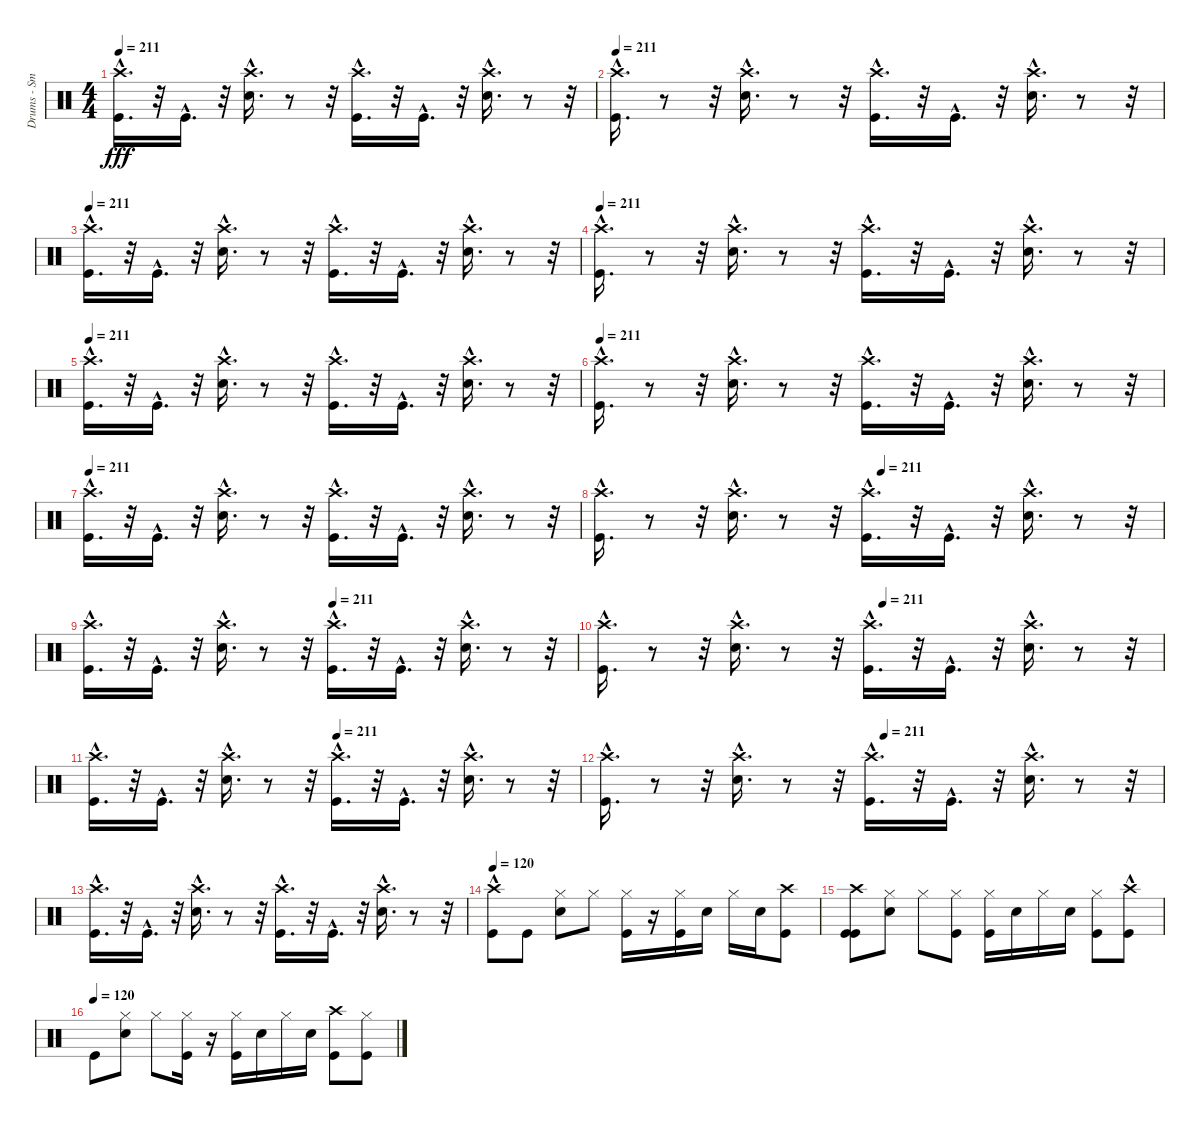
\track ("Drums - Smelly" "Drums - Sm") {instrument percussion}
\staff {score}
\articulation defaults
\ts (4 4)
\tempo 211
\clef neutral
\ks c
("Kick (hit)"{hac} "Crash high (hit)"{hac}).16{d dy fff} r.32 "Kick (hit)"{hac}.16{d} r.32 ("Electric Snare (hit)"{hac} "Crash high (hit)"{hac}).16{d} r.8 r.32 ("Crash high (hit)"{hac} "Kick (hit)"{hac}).16{d} r.32 "Kick (hit)"{hac}.16{d} r.32 ("Crash high (hit)"{hac} "Electric Snare (hit)"{hac}).16{d} r.8 r.32 |
\tempo 211
("Crash high (hit)"{hac} "Kick (hit)"{hac}).16{d} r.8 r.32 ("Electric Snare (hit)"{hac} "Crash high (hit)"{hac}).16{d} r.8 r.32 ("Kick (hit)"{hac} "Crash high (hit)"{hac}).16{d} r.32 "Kick (hit)"{hac}.16{d} r.32 ("Crash high (hit)"{hac} "Electric Snare (hit)"{hac}).16{d} r.8 r.32 |
\tempo 211
("Kick (hit)"{hac} "Crash high (hit)"{hac}).16{d} r.32 "Kick (hit)"{hac}.16{d} r.32 ("Electric Snare (hit)"{hac} "Crash high (hit)"{hac}).16{d} r.8 r.32 ("Crash high (hit)"{hac} "Kick (hit)"{hac}).16{d} r.32 "Kick (hit)"{hac}.16{d} r.32 ("Crash high (hit)"{hac} "Electric Snare (hit)"{hac}).16{d} r.8 r.32 |
\tempo 211
("Crash high (hit)"{hac} "Kick (hit)"{hac}).16{d} r.8 r.32 ("Electric Snare (hit)"{hac} "Crash high (hit)"{hac}).16{d} r.8 r.32 ("Crash high (hit)"{hac} "Kick (hit)"{hac}).16{d} r.32 "Kick (hit)"{hac}.16{d} r.32 ("Crash high (hit)"{hac} "Electric Snare (hit)"{hac}).16{d} r.8 r.32 |
\tempo 211
("Crash high (hit)"{hac} "Kick (hit)"{hac}).16{d} r.32 "Kick (hit)"{hac}.16{d} r.32 ("Electric Snare (hit)"{hac} "Crash high (hit)"{hac}).16{d} r.8 r.32 ("Crash high (hit)"{hac} "Kick (hit)"{hac}).16{d} r.32 "Kick (hit)"{hac}.16{d} r.32 ("Crash high (hit)"{hac} "Electric Snare (hit)"{hac}).16{d} r.8 r.32 |
\tempo 211
("Crash high (hit)"{hac} "Kick (hit)"{hac}).16{d} r.8 r.32 ("Electric Snare (hit)"{hac} "Crash high (hit)"{hac}).16{d} r.8 r.32 ("Crash high (hit)"{hac} "Kick (hit)"{hac}).16{d} r.32 "Kick (hit)"{hac}.16{d} r.32 ("Crash high (hit)"{hac} "Electric Snare (hit)"{hac}).16{d} r.8 r.32 |
\tempo 211
("Crash high (hit)"{hac} "Kick (hit)"{hac}).16{d} r.32 "Kick (hit)"{hac}.16{d} r.32 ("Crash high (hit)"{hac} "Electric Snare (hit)"{hac}).16{d} r.8 r.32 ("Kick (hit)"{hac} "Crash high (hit)"{hac}).16{d} r.32 "Kick (hit)"{hac}.16{d} r.32 ("Electric Snare (hit)"{hac} "Crash high (hit)"{hac}).16{d} r.8 r.32 |
\tempo (211 0.5)
("Crash high (hit)"{hac} "Kick (hit)"{hac}).16{d} r.8 r.32 ("Electric Snare (hit)"{hac} "Crash high (hit)"{hac}).16{d} r.8 r.32 ("Crash high (hit)"{hac} "Kick (hit)"{hac}).16{d} r.32 "Kick (hit)"{hac}.16{d} r.32 ("Crash high (hit)"{hac} "Electric Snare (hit)"{hac}).16{d} r.8 r.32 |
\tempo (211 0.5)
("Crash high (hit)"{hac} "Kick (hit)"{hac}).16{d} r.32 "Kick (hit)"{hac}.16{d} r.32 ("Crash high (hit)"{hac} "Electric Snare (hit)"{hac}).16{d} r.8 r.32 ("Kick (hit)"{hac} "Crash high (hit)"{hac}).16{d} r.32 "Kick (hit)"{hac}.16{d} r.32 ("Electric Snare (hit)"{hac} "Crash high (hit)"{hac}).16{d} r.8 r.32 |
\tempo (211 0.5)
("Crash high (hit)"{hac} "Kick (hit)"{hac}).16{d} r.8 r.32 ("Crash high (hit)"{hac} "Electric Snare (hit)"{hac}).16{d} r.8 r.32 ("Kick (hit)"{hac} "Crash high (hit)"{hac}).16{d} r.32 "Kick (hit)"{hac}.16{d} r.32 ("Crash high (hit)"{hac} "Electric Snare (hit)"{hac}).16{d} r.8 r.32 |
\tempo (211 0.5)
("Crash high (hit)"{hac} "Kick (hit)"{hac}).16{d} r.32 "Kick (hit)"{hac}.16{d} r.32 ("Crash high (hit)"{hac} "Electric Snare (hit)"{hac}).16{d} r.8 r.32 ("Kick (hit)"{hac} "Crash high (hit)"{hac}).16{d} r.32 "Kick (hit)"{hac}.16{d} r.32 ("Electric Snare (hit)"{hac} "Crash high (hit)"{hac}).16{d} r.8 r.32 |
\tempo (211 0.5)
("Crash high (hit)"{hac} "Kick (hit)"{hac}).16{d} r.8 r.32 ("Crash high (hit)"{hac} "Electric Snare (hit)"{hac}).16{d} r.8 r.32 ("Kick (hit)"{hac} "Crash high (hit)"{hac}).16{d} r.32 "Kick (hit)"{hac}.16{d} r.32 ("Electric Snare (hit)"{hac} "Crash high (hit)"{hac}).16{d} r.8 r.32 |
("Kick (hit)"{hac} "Crash high (hit)"{hac}).16{d} r.32 "Kick (hit)"{hac}.16{d} r.32 ("Crash high (hit)"{hac} "Electric Snare (hit)"{hac}).16{d} r.8 r.32 ("Kick (hit)"{hac} "Crash high (hit)"{hac}).16{d} r.32 "Kick (hit)"{hac}.16{d} r.32 ("Electric Snare (hit)"{hac} "Crash high (hit)"{hac}).16{d} r.8 r.32 |
\tempo 120
("Crash high (hit)"{hac} "Kick (hit)").8 "Kick (hit)".8 ("Electric Snare (hit)" "Hi-Hat (closed)").8 "Hi-Hat (closed)".8 ("Kick (hit)" "Hi-Hat (closed)").16 r.16 ("Kick (hit)" "Hi-Hat (closed)").16 "Electric Snare (hit)".16 "Hi-Hat (closed)".16 "Electric Snare (hit)".16 ("Crash high (hit)" "Kick (hit)").8 |
("Kick (hit)" "Kick (hit)" "Crash high (hit)").8 ("Hi-Hat (closed)" "Electric Snare (hit)").8 "Hi-Hat (closed)".8 ("Hi-Hat (closed)" "Kick (hit)").8 ("Hi-Hat (closed)" "Kick (hit)").16 "Electric Snare (hit)".16 "Hi-Hat (closed)".16 "Electric Snare (hit)".16 ("Hi-Hat (closed)" "Kick (hit)").8 ("Crash high (hit)"{hac} "Kick (hit)").8 |
\tempo (120)
"Kick (hit)".8 ("Hi-Hat (closed)" "Electric Snare (hit)").8 "Hi-Hat (closed)".8 ("Hi-Hat (closed)" "Kick (hit)").16 r.16 ("Kick (hit)" "Hi-Hat (closed)").16 "Electric Snare (hit)".16 "Hi-Hat (closed)".16 "Electric Snare (hit)".16 ("Crash high (hit)" "Kick (hit)").8 ("Hi-Hat (closed)" "Kick (hit)").8
